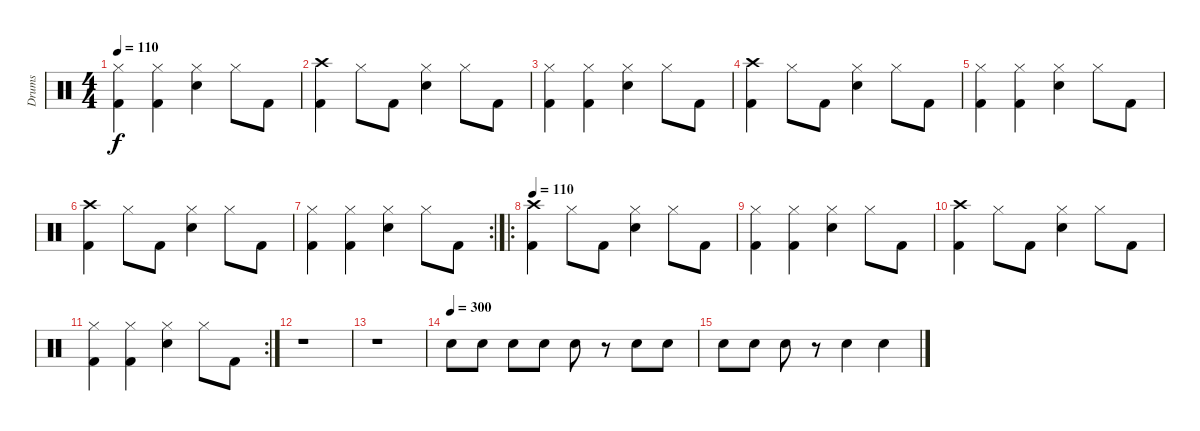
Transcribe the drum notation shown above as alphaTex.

\track ("Drums" "Drums") {instrument percussion}
\staff {score}
\articulation defaults
\ts (4 4)
\tempo 110
\clef neutral
\ks c
("Kick (hit) 2" "Hi-Hat (closed)").4{dy f} ("Kick (hit) 2" "Hi-Hat (closed)").4 ("Snare (hit) 2" "Hi-Hat (closed)").4 "Hi-Hat (closed)".8 "Kick (hit) 2".8 |
("Kick (hit) 2" "Crash high (hit)").4 "Hi-Hat (closed)".8 "Kick (hit) 2".8 ("Snare (hit) 2" "Hi-Hat (closed)").4 "Hi-Hat (closed)".8 "Kick (hit) 2".8 |
("Kick (hit) 2" "Hi-Hat (closed)").4 ("Kick (hit) 2" "Hi-Hat (closed)").4 ("Snare (hit) 2" "Hi-Hat (closed)").4 "Hi-Hat (closed)".8 "Kick (hit) 2".8 |
("Kick (hit) 2" "Crash high (hit)").4 "Hi-Hat (closed)".8 "Kick (hit) 2".8 ("Snare (hit) 2" "Hi-Hat (closed)").4 "Hi-Hat (closed)".8 "Kick (hit) 2".8 |
("Kick (hit) 2" "Hi-Hat (closed)").4 ("Kick (hit) 2" "Hi-Hat (closed)").4 ("Snare (hit) 2" "Hi-Hat (closed)").4 "Hi-Hat (closed)".8 "Kick (hit) 2".8 |
("Kick (hit) 2" "Crash high (hit)").4 "Hi-Hat (closed)".8 "Kick (hit) 2".8 ("Snare (hit) 2" "Hi-Hat (closed)").4 "Hi-Hat (closed)".8 "Kick (hit) 2".8 |
\rc 2
("Kick (hit) 2" "Hi-Hat (closed)").4 ("Kick (hit) 2" "Hi-Hat (closed)").4 ("Snare (hit) 2" "Hi-Hat (closed)").4 "Hi-Hat (closed)".8 "Kick (hit) 2".8 |
\ro
\tempo 110
("Kick (hit) 2" "Crash high (hit)").4 "Hi-Hat (closed)".8 "Kick (hit) 2".8 ("Snare (hit) 2" "Hi-Hat (closed)").4 "Hi-Hat (closed)".8 "Kick (hit) 2".8 |
("Kick (hit) 2" "Hi-Hat (closed)").4 ("Kick (hit) 2" "Hi-Hat (closed)").4 ("Snare (hit) 2" "Hi-Hat (closed)").4 "Hi-Hat (closed)".8 "Kick (hit) 2".8 |
("Kick (hit) 2" "Crash high (hit)").4 "Hi-Hat (closed)".8 "Kick (hit) 2".8 ("Snare (hit) 2" "Hi-Hat (closed)").4 "Hi-Hat (closed)".8 "Kick (hit) 2".8 |
\rc 2
("Kick (hit) 2" "Hi-Hat (closed)").4 ("Kick (hit) 2" "Hi-Hat (closed)").4 ("Snare (hit) 2" "Hi-Hat (closed)").4 "Hi-Hat (closed)".8 "Kick (hit) 2".8 |
r.1 |
r.1 |
\tempo (300)
"Snare (hit) 2".8 "Snare (hit) 2".8 "Snare (hit) 2".8 "Snare (hit) 2".8 "Snare (hit) 2".8 r.8 "Snare (hit) 2".8 "Snare (hit) 2".8 |
"Snare (hit) 2".8 "Snare (hit) 2".8 "Snare (hit) 2".8 r.8 "Snare (hit) 2".4 "Snare (hit) 2".4
